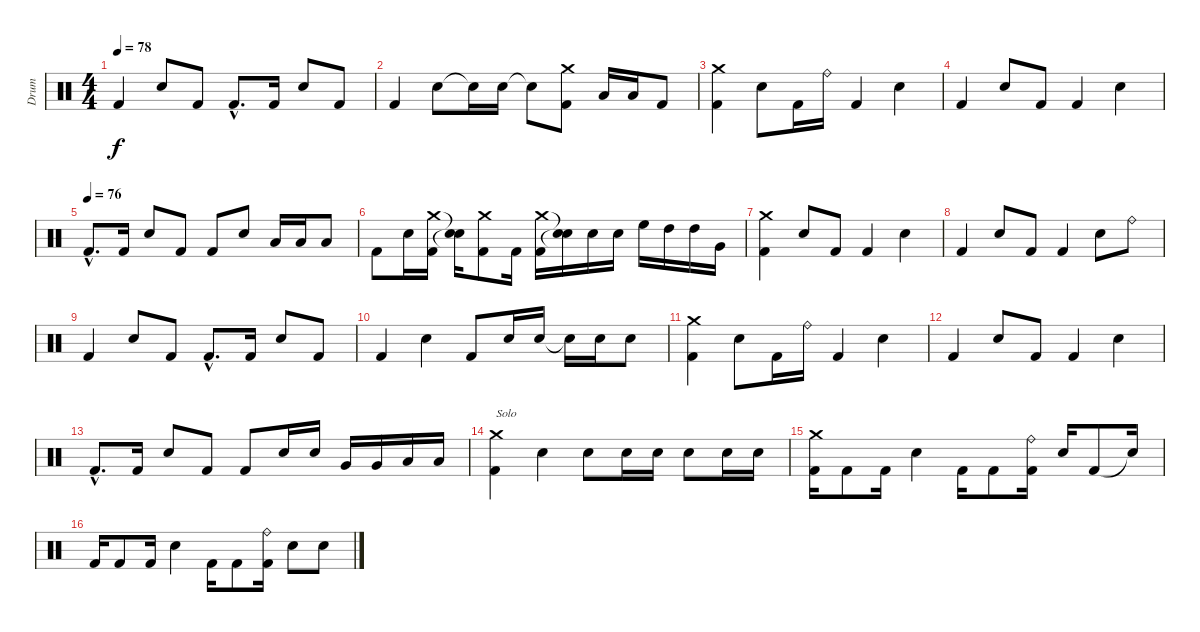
\track ("Drum" "Drum") {instrument percussion}
\staff {score}
\articulation defaults
\ts (4 4)
\tempo 78
\clef neutral
\ks c "Kick (hit) 2".4{dy f} "Electric Snare (hit)".8 "Kick (hit) 2".8 "Kick (hit) 2"{hac}.8{d} "Kick (hit) 2".16 "Electric Snare (hit)".8 "Kick (hit) 2".8
|
"Kick (hit) 2".4 "Electric Snare (hit)".8 "Snare (hit)"{t}.16 "Electric Snare (hit)".16 "Snare (hit)"{t}.8 ("Crash medium (hit)" "Kick (hit) 2").8 "Low Floor Tom (hit)".16 "Low Floor Tom (hit)".16 "Kick (hit) 2".8 |
("Crash medium (hit)" "Kick (hit) 2").4 "Electric Snare (hit)".8 "Kick (hit) 2".16 "Ride (bell)".16 "Kick (hit) 2".4 "Electric Snare (hit)".4 |
"Kick (hit) 2".4 "Electric Snare (hit)".8 "Kick (hit) 2".8 "Kick (hit) 2".4 "Electric Snare (hit)".4 |
\tempo (76)
"Kick (hit) 2"{hac}.8{d} "Kick (hit) 2".16 "Electric Snare (hit)".8 "Kick (hit) 2".8 "Kick (hit) 2".8 "Electric Snare (hit)".8 "Low Floor Tom (hit)".16 "Low Floor Tom (hit)".16 "Low Floor Tom (hit)".8 |
"Kick (hit) 2".8 "Electric Snare (hit)".16 ("Crash medium (hit)" "Kick (hit) 2").16 ("Snare (hit)"{t} "Snare (hit)"{t}).16 ("Crash medium (hit)" "Kick (hit) 2").8 "Kick (hit) 2".16 ("Crash medium (hit)" "Kick (hit) 2").16 ("Snare (hit)"{t} "Snare (hit)"{t}).16 "Snare (hit) 2".16 "Snare (hit) 2".16 "High Floor Tom (hit)".16 "High Tom (hit)".16 "High Tom (hit)".16 "Very Low Tom (hit)".16 |
("Crash medium (hit)" "Kick (hit) 2").4 "Electric Snare (hit)".8 "Kick (hit) 2".8 "Kick (hit) 2".4 "Electric Snare (hit)".4 |
"Kick (hit) 2".4 "Electric Snare (hit)".8 "Kick (hit) 2".8 "Kick (hit) 2".4 "Electric Snare (hit)".8 "Ride (bell)".8 |
"Kick (hit) 2".4 "Electric Snare (hit)".8 "Kick (hit) 2".8 "Kick (hit) 2"{hac}.8{d} "Kick (hit) 2".16 "Electric Snare (hit)".8 "Kick (hit) 2".8 |
"Kick (hit) 2".4 "Electric Snare (hit)".4 "Kick (hit) 2".8 "Electric Snare (hit)".16 "Electric Snare (hit)".16 "Snare (hit)"{t}.16 "Electric Snare (hit)".16 "Electric Snare (hit)".8 |
("Crash medium (hit)" "Kick (hit) 2").4 "Electric Snare (hit)".8 "Kick (hit) 2".16 "Ride (bell)".16 "Kick (hit) 2".4 "Electric Snare (hit)".4 |
"Kick (hit) 2".4 "Electric Snare (hit)".8 "Kick (hit) 2".8 "Kick (hit) 2".4 "Electric Snare (hit)".4 |
"Kick (hit) 2"{hac}.8{d} "Kick (hit) 2".16 "Electric Snare (hit)".8 "Kick (hit) 2".8 "Kick (hit) 2".8 "Electric Snare (hit)".16 "Electric Snare (hit)".16 "Very Low Tom (hit)".16 "Very Low Tom (hit)".16 "Low Floor Tom (hit)".16 "Low Floor Tom (hit)".16 |
("Crash medium (hit)" "Kick (hit) 2").4{txt "Solo"} "Electric Snare (hit)".4 "Electric Snare (hit)".8 "Electric Snare (hit)".16 "Electric Snare (hit)".16 "Electric Snare (hit)".8 "Electric Snare (hit)".16 "Electric Snare (hit)".16 |
("Crash medium (hit)" "Kick (hit) 2").16 "Kick (hit) 2".8 "Kick (hit) 2".16 "Electric Snare (hit)".4 "Kick (hit) 2".16 "Kick (hit) 2".8 ("Ride (bell)" "Kick (hit) 2").16 "Electric Snare (hit)".16 "Kick (hit) 2".8 "Snare (hit)"{t}.16 |
"Kick (hit) 2".16 "Kick (hit) 2".8 "Kick (hit) 2".16 "Electric Snare (hit)".4 "Kick (hit) 2".16 "Kick (hit) 2".8 ("Ride (bell)" "Kick (hit) 2").16 "Electric Snare (hit)".8 "Electric Snare (hit)".8
